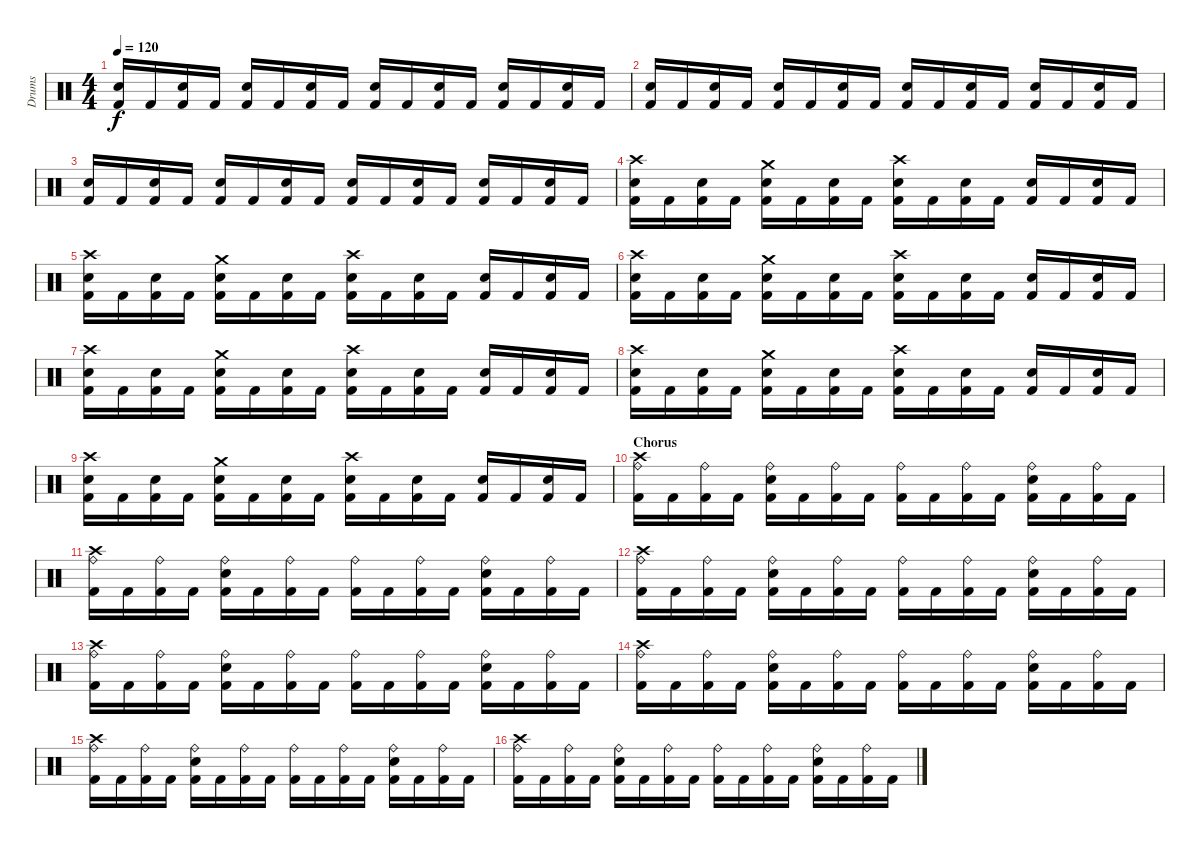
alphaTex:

\track ("Drums" "Drums") {instrument percussion}
\staff {score}
\articulation defaults
\ts (4 4)
\tempo 120
\clef neutral
\ks c
("Electric Snare (hit)" "Kick (hit) 2").16{dy f} "Kick (hit) 2".16 ("Electric Snare (hit)" "Kick (hit) 2").16 "Kick (hit) 2".16 ("Electric Snare (hit)" "Kick (hit) 2").16 "Kick (hit) 2".16 ("Electric Snare (hit)" "Kick (hit) 2").16 "Kick (hit) 2".16 ("Electric Snare (hit)" "Kick (hit) 2").16 "Kick (hit) 2".16 ("Electric Snare (hit)" "Kick (hit) 2").16 "Kick (hit) 2".16 ("Electric Snare (hit)" "Kick (hit) 2").16 "Kick (hit) 2".16 ("Electric Snare (hit)" "Kick (hit) 2").16 "Kick (hit) 2".16 |
("Electric Snare (hit)" "Kick (hit) 2").16 "Kick (hit) 2".16 ("Electric Snare (hit)" "Kick (hit) 2").16 "Kick (hit) 2".16 ("Electric Snare (hit)" "Kick (hit) 2").16 "Kick (hit) 2".16 ("Electric Snare (hit)" "Kick (hit) 2").16 "Kick (hit) 2".16 ("Electric Snare (hit)" "Kick (hit) 2").16 "Kick (hit) 2".16 ("Electric Snare (hit)" "Kick (hit) 2").16 "Kick (hit) 2".16 ("Electric Snare (hit)" "Kick (hit) 2").16 "Kick (hit) 2".16 ("Electric Snare (hit)" "Kick (hit) 2").16 "Kick (hit) 2".16 |
("Electric Snare (hit)" "Kick (hit) 2").16 "Kick (hit) 2".16 ("Electric Snare (hit)" "Kick (hit) 2").16 "Kick (hit) 2".16 ("Electric Snare (hit)" "Kick (hit) 2").16 "Kick (hit) 2".16 ("Electric Snare (hit)" "Kick (hit) 2").16 "Kick (hit) 2".16 ("Electric Snare (hit)" "Kick (hit) 2").16 "Kick (hit) 2".16 ("Electric Snare (hit)" "Kick (hit) 2").16 "Kick (hit) 2".16 ("Electric Snare (hit)" "Kick (hit) 2").16 "Kick (hit) 2".16 ("Electric Snare (hit)" "Kick (hit) 2").16 "Kick (hit) 2".16 |
("Crash high (hit)" "Electric Snare (hit)" "Kick (hit) 2").16 "Kick (hit) 2".16 ("Electric Snare (hit)" "Kick (hit) 2").16 "Kick (hit) 2".16 ("Crash medium (hit)" "Electric Snare (hit)" "Kick (hit) 2").16 "Kick (hit) 2".16 ("Electric Snare (hit)" "Kick (hit) 2").16 "Kick (hit) 2".16 ("Crash high (hit)" "Electric Snare (hit)" "Kick (hit) 2").16 "Kick (hit) 2".16 ("Electric Snare (hit)" "Kick (hit) 2").16 "Kick (hit) 2".16 ("Electric Snare (hit)" "Kick (hit) 2").16 "Kick (hit) 2".16 ("Electric Snare (hit)" "Kick (hit) 2").16 "Kick (hit) 2".16 |
("Crash high (hit)" "Electric Snare (hit)" "Kick (hit) 2").16 "Kick (hit) 2".16 ("Electric Snare (hit)" "Kick (hit) 2").16 "Kick (hit) 2".16 ("Crash medium (hit)" "Electric Snare (hit)" "Kick (hit) 2").16 "Kick (hit) 2".16 ("Electric Snare (hit)" "Kick (hit) 2").16 "Kick (hit) 2".16 ("Crash high (hit)" "Electric Snare (hit)" "Kick (hit) 2").16 "Kick (hit) 2".16 ("Electric Snare (hit)" "Kick (hit) 2").16 "Kick (hit) 2".16 ("Electric Snare (hit)" "Kick (hit) 2").16 "Kick (hit) 2".16 ("Electric Snare (hit)" "Kick (hit) 2").16 "Kick (hit) 2".16 |
("Crash high (hit)" "Electric Snare (hit)" "Kick (hit) 2").16 "Kick (hit) 2".16 ("Electric Snare (hit)" "Kick (hit) 2").16 "Kick (hit) 2".16 ("Crash medium (hit)" "Electric Snare (hit)" "Kick (hit) 2").16 "Kick (hit) 2".16 ("Electric Snare (hit)" "Kick (hit) 2").16 "Kick (hit) 2".16 ("Crash high (hit)" "Electric Snare (hit)" "Kick (hit) 2").16 "Kick (hit) 2".16 ("Electric Snare (hit)" "Kick (hit) 2").16 "Kick (hit) 2".16 ("Electric Snare (hit)" "Kick (hit) 2").16 "Kick (hit) 2".16 ("Electric Snare (hit)" "Kick (hit) 2").16 "Kick (hit) 2".16 |
("Crash high (hit)" "Electric Snare (hit)" "Kick (hit) 2").16 "Kick (hit) 2".16 ("Electric Snare (hit)" "Kick (hit) 2").16 "Kick (hit) 2".16 ("Crash medium (hit)" "Electric Snare (hit)" "Kick (hit) 2").16 "Kick (hit) 2".16 ("Electric Snare (hit)" "Kick (hit) 2").16 "Kick (hit) 2".16 ("Crash high (hit)" "Electric Snare (hit)" "Kick (hit) 2").16 "Kick (hit) 2".16 ("Electric Snare (hit)" "Kick (hit) 2").16 "Kick (hit) 2".16 ("Electric Snare (hit)" "Kick (hit) 2").16 "Kick (hit) 2".16 ("Electric Snare (hit)" "Kick (hit) 2").16 "Kick (hit) 2".16 |
("Crash high (hit)" "Electric Snare (hit)" "Kick (hit) 2").16 "Kick (hit) 2".16 ("Electric Snare (hit)" "Kick (hit) 2").16 "Kick (hit) 2".16 ("Crash medium (hit)" "Electric Snare (hit)" "Kick (hit) 2").16 "Kick (hit) 2".16 ("Electric Snare (hit)" "Kick (hit) 2").16 "Kick (hit) 2".16 ("Crash high (hit)" "Electric Snare (hit)" "Kick (hit) 2").16 "Kick (hit) 2".16 ("Electric Snare (hit)" "Kick (hit) 2").16 "Kick (hit) 2".16 ("Electric Snare (hit)" "Kick (hit) 2").16 "Kick (hit) 2".16 ("Electric Snare (hit)" "Kick (hit) 2").16 "Kick (hit) 2".16 |
("Crash high (hit)" "Electric Snare (hit)" "Kick (hit) 2").16 "Kick (hit) 2".16 ("Electric Snare (hit)" "Kick (hit) 2").16 "Kick (hit) 2".16 ("Crash medium (hit)" "Electric Snare (hit)" "Kick (hit) 2").16 "Kick (hit) 2".16 ("Electric Snare (hit)" "Kick (hit) 2").16 "Kick (hit) 2".16 ("Crash high (hit)" "Electric Snare (hit)" "Kick (hit) 2").16 "Kick (hit) 2".16 ("Electric Snare (hit)" "Kick (hit) 2").16 "Kick (hit) 2".16 ("Electric Snare (hit)" "Kick (hit) 2").16 "Kick (hit) 2".16 ("Electric Snare (hit)" "Kick (hit) 2").16 "Kick (hit) 2".16 |
\section ("" "Chorus")
("Crash high (hit)" "Ride (bell)" "Kick (hit) 2").16 "Kick (hit) 2".16 ("Ride (bell)" "Kick (hit) 2").16 "Kick (hit) 2".16 ("Ride (bell)" "Electric Snare (hit)" "Kick (hit) 2").16 "Kick (hit) 2".16 ("Ride (bell)" "Kick (hit) 2").16 "Kick (hit) 2".16 ("Ride (bell)" "Kick (hit) 2").16 "Kick (hit) 2".16 ("Ride (bell)" "Kick (hit) 2").16 "Kick (hit) 2".16 ("Ride (bell)" "Electric Snare (hit)" "Kick (hit) 2").16 "Kick (hit) 2".16 ("Ride (bell)" "Kick (hit) 2").16 "Kick (hit) 2".16 |
("Crash high (hit)" "Ride (bell)" "Kick (hit) 2").16 "Kick (hit) 2".16 ("Ride (bell)" "Kick (hit) 2").16 "Kick (hit) 2".16 ("Ride (bell)" "Electric Snare (hit)" "Kick (hit) 2").16 "Kick (hit) 2".16 ("Ride (bell)" "Kick (hit) 2").16 "Kick (hit) 2".16 ("Ride (bell)" "Kick (hit) 2").16 "Kick (hit) 2".16 ("Ride (bell)" "Kick (hit) 2").16 "Kick (hit) 2".16 ("Ride (bell)" "Electric Snare (hit)" "Kick (hit) 2").16 "Kick (hit) 2".16 ("Ride (bell)" "Kick (hit) 2").16 "Kick (hit) 2".16 |
("Crash high (hit)" "Ride (bell)" "Kick (hit) 2").16 "Kick (hit) 2".16 ("Ride (bell)" "Kick (hit) 2").16 "Kick (hit) 2".16 ("Ride (bell)" "Electric Snare (hit)" "Kick (hit) 2").16 "Kick (hit) 2".16 ("Ride (bell)" "Kick (hit) 2").16 "Kick (hit) 2".16 ("Ride (bell)" "Kick (hit) 2").16 "Kick (hit) 2".16 ("Ride (bell)" "Kick (hit) 2").16 "Kick (hit) 2".16 ("Ride (bell)" "Electric Snare (hit)" "Kick (hit) 2").16 "Kick (hit) 2".16 ("Ride (bell)" "Kick (hit) 2").16 "Kick (hit) 2".16 |
("Crash high (hit)" "Ride (bell)" "Kick (hit) 2").16 "Kick (hit) 2".16 ("Ride (bell)" "Kick (hit) 2").16 "Kick (hit) 2".16 ("Ride (bell)" "Electric Snare (hit)" "Kick (hit) 2").16 "Kick (hit) 2".16 ("Ride (bell)" "Kick (hit) 2").16 "Kick (hit) 2".16 ("Ride (bell)" "Kick (hit) 2").16 "Kick (hit) 2".16 ("Ride (bell)" "Kick (hit) 2").16 "Kick (hit) 2".16 ("Ride (bell)" "Electric Snare (hit)" "Kick (hit) 2").16 "Kick (hit) 2".16 ("Ride (bell)" "Kick (hit) 2").16 "Kick (hit) 2".16 |
("Crash high (hit)" "Ride (bell)" "Kick (hit) 2").16 "Kick (hit) 2".16 ("Ride (bell)" "Kick (hit) 2").16 "Kick (hit) 2".16 ("Ride (bell)" "Electric Snare (hit)" "Kick (hit) 2").16 "Kick (hit) 2".16 ("Ride (bell)" "Kick (hit) 2").16 "Kick (hit) 2".16 ("Ride (bell)" "Kick (hit) 2").16 "Kick (hit) 2".16 ("Ride (bell)" "Kick (hit) 2").16 "Kick (hit) 2".16 ("Ride (bell)" "Electric Snare (hit)" "Kick (hit) 2").16 "Kick (hit) 2".16 ("Ride (bell)" "Kick (hit) 2").16 "Kick (hit) 2".16 |
("Crash high (hit)" "Ride (bell)" "Kick (hit) 2").16 "Kick (hit) 2".16 ("Ride (bell)" "Kick (hit) 2").16 "Kick (hit) 2".16 ("Ride (bell)" "Electric Snare (hit)" "Kick (hit) 2").16 "Kick (hit) 2".16 ("Ride (bell)" "Kick (hit) 2").16 "Kick (hit) 2".16 ("Ride (bell)" "Kick (hit) 2").16 "Kick (hit) 2".16 ("Ride (bell)" "Kick (hit) 2").16 "Kick (hit) 2".16 ("Ride (bell)" "Electric Snare (hit)" "Kick (hit) 2").16 "Kick (hit) 2".16 ("Ride (bell)" "Kick (hit) 2").16 "Kick (hit) 2".16 |
("Crash high (hit)" "Ride (bell)" "Kick (hit) 2").16 "Kick (hit) 2".16 ("Ride (bell)" "Kick (hit) 2").16 "Kick (hit) 2".16 ("Ride (bell)" "Electric Snare (hit)" "Kick (hit) 2").16 "Kick (hit) 2".16 ("Ride (bell)" "Kick (hit) 2").16 "Kick (hit) 2".16 ("Ride (bell)" "Kick (hit) 2").16 "Kick (hit) 2".16 ("Ride (bell)" "Kick (hit) 2").16 "Kick (hit) 2".16 ("Ride (bell)" "Electric Snare (hit)" "Kick (hit) 2").16 "Kick (hit) 2".16 ("Ride (bell)" "Kick (hit) 2").16 "Kick (hit) 2".16
